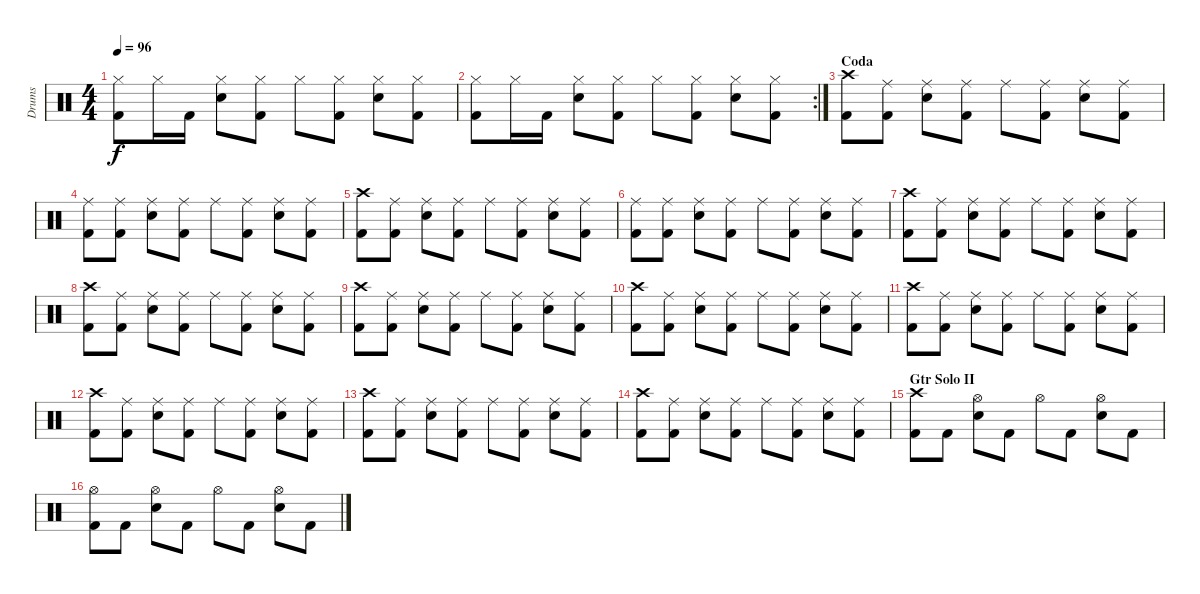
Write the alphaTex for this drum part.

\track ("Drums" "Drums") {instrument percussion}
\staff {score}
\articulation defaults
\ts (4 4)
\tempo 96
\clef neutral
\ks c
("Hi-Hat (closed)" "Kick (hit) 2").8{dy f} "Hi-Hat (closed)".16 "Kick (hit) 2".16 ("Hi-Hat (closed)" "Snare (hit) 2").8 ("Hi-Hat (closed)" "Kick (hit) 2").8 "Hi-Hat (closed)".8 ("Hi-Hat (closed)" "Kick (hit) 2").8 ("Hi-Hat (closed)" "Snare (hit) 2").8 ("Hi-Hat (closed)" "Kick (hit) 2").8 |
\rc 2
("Hi-Hat (closed)" "Kick (hit) 2").8 "Hi-Hat (closed)".16 "Kick (hit) 2".16 ("Hi-Hat (closed)" "Snare (hit) 2").8 ("Hi-Hat (closed)" "Kick (hit) 2").8 "Hi-Hat (closed)".8 ("Hi-Hat (closed)" "Kick (hit) 2").8 ("Hi-Hat (closed)" "Snare (hit) 2").8 ("Hi-Hat (closed)" "Kick (hit) 2").8 |
\section ("" "Coda")
("Crash high (hit)" "Kick (hit) 2").8 ("Ride (middle)" "Kick (hit) 2").8 ("Ride (middle)" "Snare (hit) 2").8 ("Ride (middle)" "Kick (hit) 2").8 "Ride (middle)".8 ("Ride (middle)" "Kick (hit) 2").8 ("Ride (middle)" "Snare (hit) 2").8 ("Ride (middle)" "Kick (hit) 2").8 |
("Ride (middle)" "Kick (hit) 2").8 ("Ride (middle)" "Kick (hit) 2").8 ("Ride (middle)" "Snare (hit) 2").8 ("Ride (middle)" "Kick (hit) 2").8 "Ride (middle)".8 ("Ride (middle)" "Kick (hit) 2").8 ("Ride (middle)" "Snare (hit) 2").8 ("Ride (middle)" "Kick (hit) 2").8 |
("Crash high (hit)" "Kick (hit) 2").8 ("Ride (middle)" "Kick (hit) 2").8 ("Ride (middle)" "Snare (hit) 2").8 ("Ride (middle)" "Kick (hit) 2").8 "Ride (middle)".8 ("Ride (middle)" "Kick (hit) 2").8 ("Ride (middle)" "Snare (hit) 2").8 ("Ride (middle)" "Kick (hit) 2").8 |
("Ride (middle)" "Kick (hit) 2").8 ("Ride (middle)" "Kick (hit) 2").8 ("Ride (middle)" "Snare (hit) 2").8 ("Ride (middle)" "Kick (hit) 2").8 "Ride (middle)".8 ("Ride (middle)" "Kick (hit) 2").8 ("Ride (middle)" "Snare (hit) 2").8 ("Ride (middle)" "Kick (hit) 2").8 |
("Crash high (hit)" "Kick (hit) 2").8 ("Ride (middle)" "Kick (hit) 2").8 ("Ride (middle)" "Snare (hit) 2").8 ("Ride (middle)" "Kick (hit) 2").8 "Ride (middle)".8 ("Ride (middle)" "Kick (hit) 2").8 ("Ride (middle)" "Snare (hit) 2").8 ("Ride (middle)" "Kick (hit) 2").8 |
("Crash high (hit)" "Kick (hit) 2").8 ("Ride (middle)" "Kick (hit) 2").8 ("Ride (middle)" "Snare (hit) 2").8 ("Ride (middle)" "Kick (hit) 2").8 "Ride (middle)".8 ("Ride (middle)" "Kick (hit) 2").8 ("Ride (middle)" "Snare (hit) 2").8 ("Ride (middle)" "Kick (hit) 2").8 |
("Crash high (hit)" "Kick (hit) 2").8 ("Ride (middle)" "Kick (hit) 2").8 ("Ride (middle)" "Snare (hit) 2").8 ("Ride (middle)" "Kick (hit) 2").8 "Ride (middle)".8 ("Ride (middle)" "Kick (hit) 2").8 ("Ride (middle)" "Snare (hit) 2").8 ("Ride (middle)" "Kick (hit) 2").8 |
("Crash high (hit)" "Kick (hit) 2").8 ("Ride (middle)" "Kick (hit) 2").8 ("Ride (middle)" "Snare (hit) 2").8 ("Ride (middle)" "Kick (hit) 2").8 "Ride (middle)".8 ("Ride (middle)" "Kick (hit) 2").8 ("Ride (middle)" "Snare (hit) 2").8 ("Ride (middle)" "Kick (hit) 2").8 |
("Crash high (hit)" "Kick (hit) 2").8 ("Ride (middle)" "Kick (hit) 2").8 ("Ride (middle)" "Snare (hit) 2").8 ("Ride (middle)" "Kick (hit) 2").8 "Ride (middle)".8 ("Ride (middle)" "Kick (hit) 2").8 ("Ride (middle)" "Snare (hit) 2").8 ("Ride (middle)" "Kick (hit) 2").8 |
("Crash high (hit)" "Kick (hit) 2").8 ("Ride (middle)" "Kick (hit) 2").8 ("Ride (middle)" "Snare (hit) 2").8 ("Ride (middle)" "Kick (hit) 2").8 "Ride (middle)".8 ("Ride (middle)" "Kick (hit) 2").8 ("Ride (middle)" "Snare (hit) 2").8 ("Ride (middle)" "Kick (hit) 2").8 |
("Crash high (hit)" "Kick (hit) 2").8 ("Ride (middle)" "Kick (hit) 2").8 ("Ride (middle)" "Snare (hit) 2").8 ("Ride (middle)" "Kick (hit) 2").8 "Ride (middle)".8 ("Ride (middle)" "Kick (hit) 2").8 ("Ride (middle)" "Snare (hit) 2").8 ("Ride (middle)" "Kick (hit) 2").8 |
("Crash high (hit)" "Kick (hit) 2").8 ("Ride (middle)" "Kick (hit) 2").8 ("Ride (middle)" "Snare (hit) 2").8 ("Ride (middle)" "Kick (hit) 2").8 "Ride (middle)".8 ("Ride (middle)" "Kick (hit) 2").8 ("Ride (middle)" "Snare (hit) 2").8 ("Ride (middle)" "Kick (hit) 2").8 |
\section ("" "Gtr Solo II")
("Crash high (hit)" "Kick (hit) 2").8 "Kick (hit) 2".8 ("Hi-Hat (open)" "Snare (hit) 2").8 "Kick (hit) 2".8 "Hi-Hat (open)".8 "Kick (hit) 2".8 ("Hi-Hat (open)" "Snare (hit) 2").8 "Kick (hit) 2".8 |
("Hi-Hat (open)" "Kick (hit) 2").8 "Kick (hit) 2".8 ("Hi-Hat (open)" "Snare (hit) 2").8 "Kick (hit) 2".8 "Hi-Hat (open)".8 "Kick (hit) 2".8 ("Hi-Hat (open)" "Snare (hit) 2").8 "Kick (hit) 2".8
